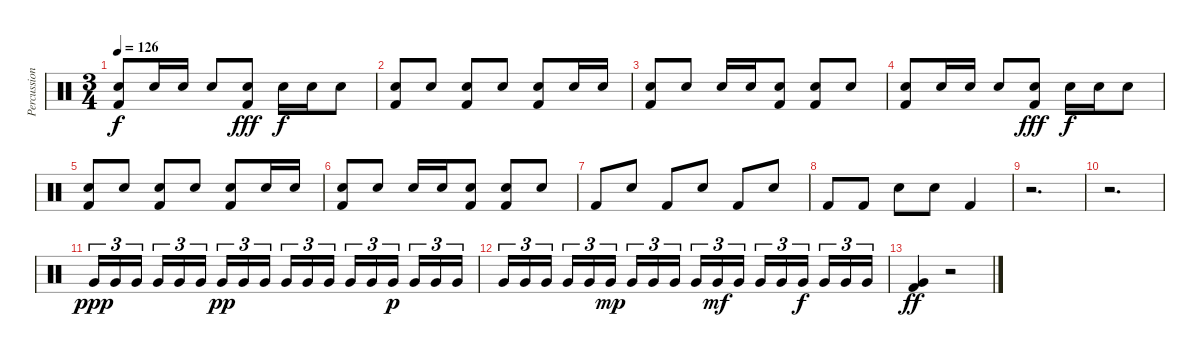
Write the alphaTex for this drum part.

\track ("Percussion" "Percussion") {instrument percussion}
\staff {score}
\articulation defaults
\ts (3 4)
\tempo 126
\clef neutral
\ks c
("Snare (hit) 2" "Kick (hit) 2").8{dy f} "Snare (hit) 2".16 "Snare (hit) 2".16 "Snare (hit) 2".8 ("Snare (hit) 2" "Kick (hit) 2").8{dy fff} "Snare (hit) 2".16{dy f} "Snare (hit) 2".16 "Snare (hit) 2".8 |
("Snare (hit) 2" "Kick (hit) 2").8 "Snare (hit) 2".8 ("Snare (hit) 2" "Kick (hit) 2").8 "Snare (hit) 2".8 ("Snare (hit) 2" "Kick (hit) 2").8 "Snare (hit) 2".16 "Snare (hit) 2".16 |
("Snare (hit) 2" "Kick (hit) 2").8 "Snare (hit) 2".8 "Snare (hit) 2".16 "Snare (hit) 2".16 ("Snare (hit) 2" "Kick (hit) 2").8 ("Snare (hit) 2" "Kick (hit) 2").8 "Snare (hit) 2".8 |
("Snare (hit) 2" "Kick (hit) 2").8 "Snare (hit) 2".16 "Snare (hit) 2".16 "Snare (hit) 2".8 ("Snare (hit) 2" "Kick (hit) 2").8{dy fff} "Snare (hit) 2".16{dy f} "Snare (hit) 2".16 "Snare (hit) 2".8 |
("Snare (hit) 2" "Kick (hit) 2").8 "Snare (hit) 2".8 ("Snare (hit) 2" "Kick (hit) 2").8 "Snare (hit) 2".8 ("Snare (hit) 2" "Kick (hit) 2").8 "Snare (hit) 2".16 "Snare (hit) 2".16 |
("Snare (hit) 2" "Kick (hit) 2").8 "Snare (hit) 2".8 "Snare (hit) 2".16 "Snare (hit) 2".16 ("Snare (hit) 2" "Kick (hit) 2").8 ("Snare (hit) 2" "Kick (hit) 2").8 "Snare (hit) 2".8 |
"Kick (hit) 2".8 "Snare (hit) 2".8 "Kick (hit) 2".8 "Snare (hit) 2".8 "Kick (hit) 2".8 "Snare (hit) 2".8 |
"Kick (hit) 2".8 "Kick (hit) 2".8 "Snare (hit) 2".8 "Snare (hit) 2".8 "Kick (hit) 2".4 |
r.2{d} |
r.2{d} |
"Very Low Tom (hit)".16{tu (3 2) dy ppp} "Very Low Tom (hit)".16{tu (3 2)} "Very Low Tom (hit)".16{tu (3 2)} "Very Low Tom (hit)".16{tu (3 2)} "Very Low Tom (hit)".16{tu (3 2)} "Very Low Tom (hit)".16{tu (3 2)} "Very Low Tom (hit)".16{tu (3 2) dy pp} "Very Low Tom (hit)".16{tu (3 2)} "Very Low Tom (hit)".16{tu (3 2)} "Very Low Tom (hit)".16{tu (3 2)} "Very Low Tom (hit)".16{tu (3 2)} "Very Low Tom (hit)".16{tu (3 2)} "Very Low Tom (hit)".16{tu (3 2)} "Very Low Tom (hit)".16{tu (3 2)} "Very Low Tom (hit)".16{tu (3 2) dy p} "Very Low Tom (hit)".16{tu (3 2)} "Very Low Tom (hit)".16{tu (3 2)} "Very Low Tom (hit)".16{tu (3 2)} |
"Very Low Tom (hit)".16{tu (3 2)} "Very Low Tom (hit)".16{tu (3 2)} "Very Low Tom (hit)".16{tu (3 2)} "Very Low Tom (hit)".16{tu (3 2)} "Very Low Tom (hit)".16{tu (3 2)} "Very Low Tom (hit)".16{tu (3 2) dy mp} "Very Low Tom (hit)".16{tu (3 2)} "Very Low Tom (hit)".16{tu (3 2)} "Very Low Tom (hit)".16{tu (3 2)} "Very Low Tom (hit)".16{tu (3 2)} "Very Low Tom (hit)".16{tu (3 2) dy mf} "Very Low Tom (hit)".16{tu (3 2)} "Very Low Tom (hit)".16{tu (3 2)} "Very Low Tom (hit)".16{tu (3 2)} "Very Low Tom (hit)".16{tu (3 2) dy f} "Very Low Tom (hit)".16{tu (3 2)} "Very Low Tom (hit)".16{tu (3 2)} "Very Low Tom (hit)".16{tu (3 2)} |
("Very Low Tom (hit)" "Kick (hit) 2").4{dy ff} r.2
